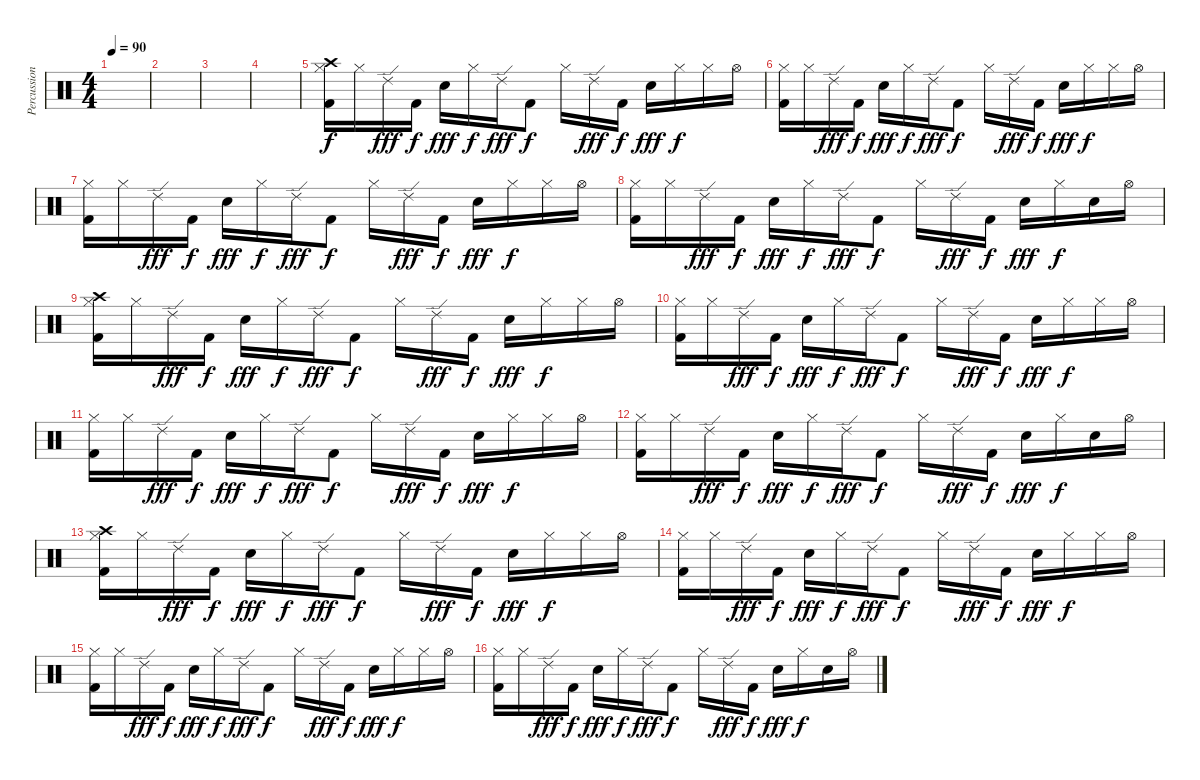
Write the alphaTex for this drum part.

\track ("Percussion" "Percussion") {instrument percussion}
\staff {score}
\articulation defaults
\ts (4 4)
\tempo 90
\clef neutral
\ks c
|
|
|
|
("Hi-Hat (closed)" "Kick (hit) 2" "Crash high (hit)").16 "Hi-Hat (closed)".16 "Ride (edge) 2".16{dy fff} "Kick (hit) 2".16{dy f} "Snare (hit) 2".16{dy fff} "Hi-Hat (closed)".16{dy f} "Ride (edge) 2".16{dy fff} "Kick (hit) 2".8{dy f} "Hi-Hat (closed)".16 "Ride (edge) 2".16{dy fff} "Kick (hit) 2".16{dy f} "Snare (hit) 2".16{dy fff} "Hi-Hat (closed)".16{dy f} "Hi-Hat (closed)".16 "Hi-Hat (open)".16 |
("Hi-Hat (closed)" "Kick (hit) 2").16 "Hi-Hat (closed)".16 "Ride (edge) 2".16{dy fff} "Kick (hit) 2".16{dy f} "Snare (hit) 2".16{dy fff} "Hi-Hat (closed)".16{dy f} "Ride (edge) 2".16{dy fff} "Kick (hit) 2".8{dy f} "Hi-Hat (closed)".16 "Ride (edge) 2".16{dy fff} "Kick (hit) 2".16{dy f} "Snare (hit) 2".16{dy fff} "Hi-Hat (closed)".16{dy f} "Hi-Hat (closed)".16 "Hi-Hat (open)".16 |
("Hi-Hat (closed)" "Kick (hit) 2").16 "Hi-Hat (closed)".16 "Ride (edge) 2".16{dy fff} "Kick (hit) 2".16{dy f} "Snare (hit) 2".16{dy fff} "Hi-Hat (closed)".16{dy f} "Ride (edge) 2".16{dy fff} "Kick (hit) 2".8{dy f} "Hi-Hat (closed)".16 "Ride (edge) 2".16{dy fff} "Kick (hit) 2".16{dy f} "Snare (hit) 2".16{dy fff} "Hi-Hat (closed)".16{dy f} "Hi-Hat (closed)".16 "Hi-Hat (open)".16 |
("Hi-Hat (closed)" "Kick (hit) 2").16 "Hi-Hat (closed)".16 "Ride (edge) 2".16{dy fff} "Kick (hit) 2".16{dy f} "Snare (hit) 2".16{dy fff} "Hi-Hat (closed)".16{dy f} "Ride (edge) 2".16{dy fff} "Kick (hit) 2".8{dy f} "Hi-Hat (closed)".16 "Ride (edge) 2".16{dy fff} "Kick (hit) 2".16{dy f} "Snare (hit) 2".16{dy fff} "Hi-Hat (closed)".16{dy f} "Snare (hit) 2".16 "Hi-Hat (open)".16 |
("Hi-Hat (closed)" "Kick (hit) 2" "Crash high (hit)").16 "Hi-Hat (closed)".16 "Ride (edge) 2".16{dy fff} "Kick (hit) 2".16{dy f} "Snare (hit) 2".16{dy fff} "Hi-Hat (closed)".16{dy f} "Ride (edge) 2".16{dy fff} "Kick (hit) 2".8{dy f} "Hi-Hat (closed)".16 "Ride (edge) 2".16{dy fff} "Kick (hit) 2".16{dy f} "Snare (hit) 2".16{dy fff} "Hi-Hat (closed)".16{dy f} "Hi-Hat (closed)".16 "Hi-Hat (open)".16 |
("Hi-Hat (closed)" "Kick (hit) 2").16 "Hi-Hat (closed)".16 "Ride (edge) 2".16{dy fff} "Kick (hit) 2".16{dy f} "Snare (hit) 2".16{dy fff} "Hi-Hat (closed)".16{dy f} "Ride (edge) 2".16{dy fff} "Kick (hit) 2".8{dy f} "Hi-Hat (closed)".16 "Ride (edge) 2".16{dy fff} "Kick (hit) 2".16{dy f} "Snare (hit) 2".16{dy fff} "Hi-Hat (closed)".16{dy f} "Hi-Hat (closed)".16 "Hi-Hat (open)".16 |
("Hi-Hat (closed)" "Kick (hit) 2").16 "Hi-Hat (closed)".16 "Ride (edge) 2".16{dy fff} "Kick (hit) 2".16{dy f} "Snare (hit) 2".16{dy fff} "Hi-Hat (closed)".16{dy f} "Ride (edge) 2".16{dy fff} "Kick (hit) 2".8{dy f} "Hi-Hat (closed)".16 "Ride (edge) 2".16{dy fff} "Kick (hit) 2".16{dy f} "Snare (hit) 2".16{dy fff} "Hi-Hat (closed)".16{dy f} "Hi-Hat (closed)".16 "Hi-Hat (open)".16 |
("Hi-Hat (closed)" "Kick (hit) 2").16 "Hi-Hat (closed)".16 "Ride (edge) 2".16{dy fff} "Kick (hit) 2".16{dy f} "Snare (hit) 2".16{dy fff} "Hi-Hat (closed)".16{dy f} "Ride (edge) 2".16{dy fff} "Kick (hit) 2".8{dy f} "Hi-Hat (closed)".16 "Ride (edge) 2".16{dy fff} "Kick (hit) 2".16{dy f} "Snare (hit) 2".16{dy fff} "Hi-Hat (closed)".16{dy f} "Snare (hit) 2".16 "Hi-Hat (open)".16 |
("Hi-Hat (closed)" "Kick (hit) 2" "Crash high (hit)").16 "Hi-Hat (closed)".16 "Ride (edge) 2".16{dy fff} "Kick (hit) 2".16{dy f} "Snare (hit) 2".16{dy fff} "Hi-Hat (closed)".16{dy f} "Ride (edge) 2".16{dy fff} "Kick (hit) 2".8{dy f} "Hi-Hat (closed)".16 "Ride (edge) 2".16{dy fff} "Kick (hit) 2".16{dy f} "Snare (hit) 2".16{dy fff} "Hi-Hat (closed)".16{dy f} "Hi-Hat (closed)".16 "Hi-Hat (open)".16 |
("Hi-Hat (closed)" "Kick (hit) 2").16 "Hi-Hat (closed)".16 "Ride (edge) 2".16{dy fff} "Kick (hit) 2".16{dy f} "Snare (hit) 2".16{dy fff} "Hi-Hat (closed)".16{dy f} "Ride (edge) 2".16{dy fff} "Kick (hit) 2".8{dy f} "Hi-Hat (closed)".16 "Ride (edge) 2".16{dy fff} "Kick (hit) 2".16{dy f} "Snare (hit) 2".16{dy fff} "Hi-Hat (closed)".16{dy f} "Hi-Hat (closed)".16 "Hi-Hat (open)".16 |
("Hi-Hat (closed)" "Kick (hit) 2").16 "Hi-Hat (closed)".16 "Ride (edge) 2".16{dy fff} "Kick (hit) 2".16{dy f} "Snare (hit) 2".16{dy fff} "Hi-Hat (closed)".16{dy f} "Ride (edge) 2".16{dy fff} "Kick (hit) 2".8{dy f} "Hi-Hat (closed)".16 "Ride (edge) 2".16{dy fff} "Kick (hit) 2".16{dy f} "Snare (hit) 2".16{dy fff} "Hi-Hat (closed)".16{dy f} "Hi-Hat (closed)".16 "Hi-Hat (open)".16 |
("Hi-Hat (closed)" "Kick (hit) 2").16 "Hi-Hat (closed)".16 "Ride (edge) 2".16{dy fff} "Kick (hit) 2".16{dy f} "Snare (hit) 2".16{dy fff} "Hi-Hat (closed)".16{dy f} "Ride (edge) 2".16{dy fff} "Kick (hit) 2".8{dy f} "Hi-Hat (closed)".16 "Ride (edge) 2".16{dy fff} "Kick (hit) 2".16{dy f} "Snare (hit) 2".16{dy fff} "Hi-Hat (closed)".16{dy f} "Snare (hit) 2".16 "Hi-Hat (open)".16
